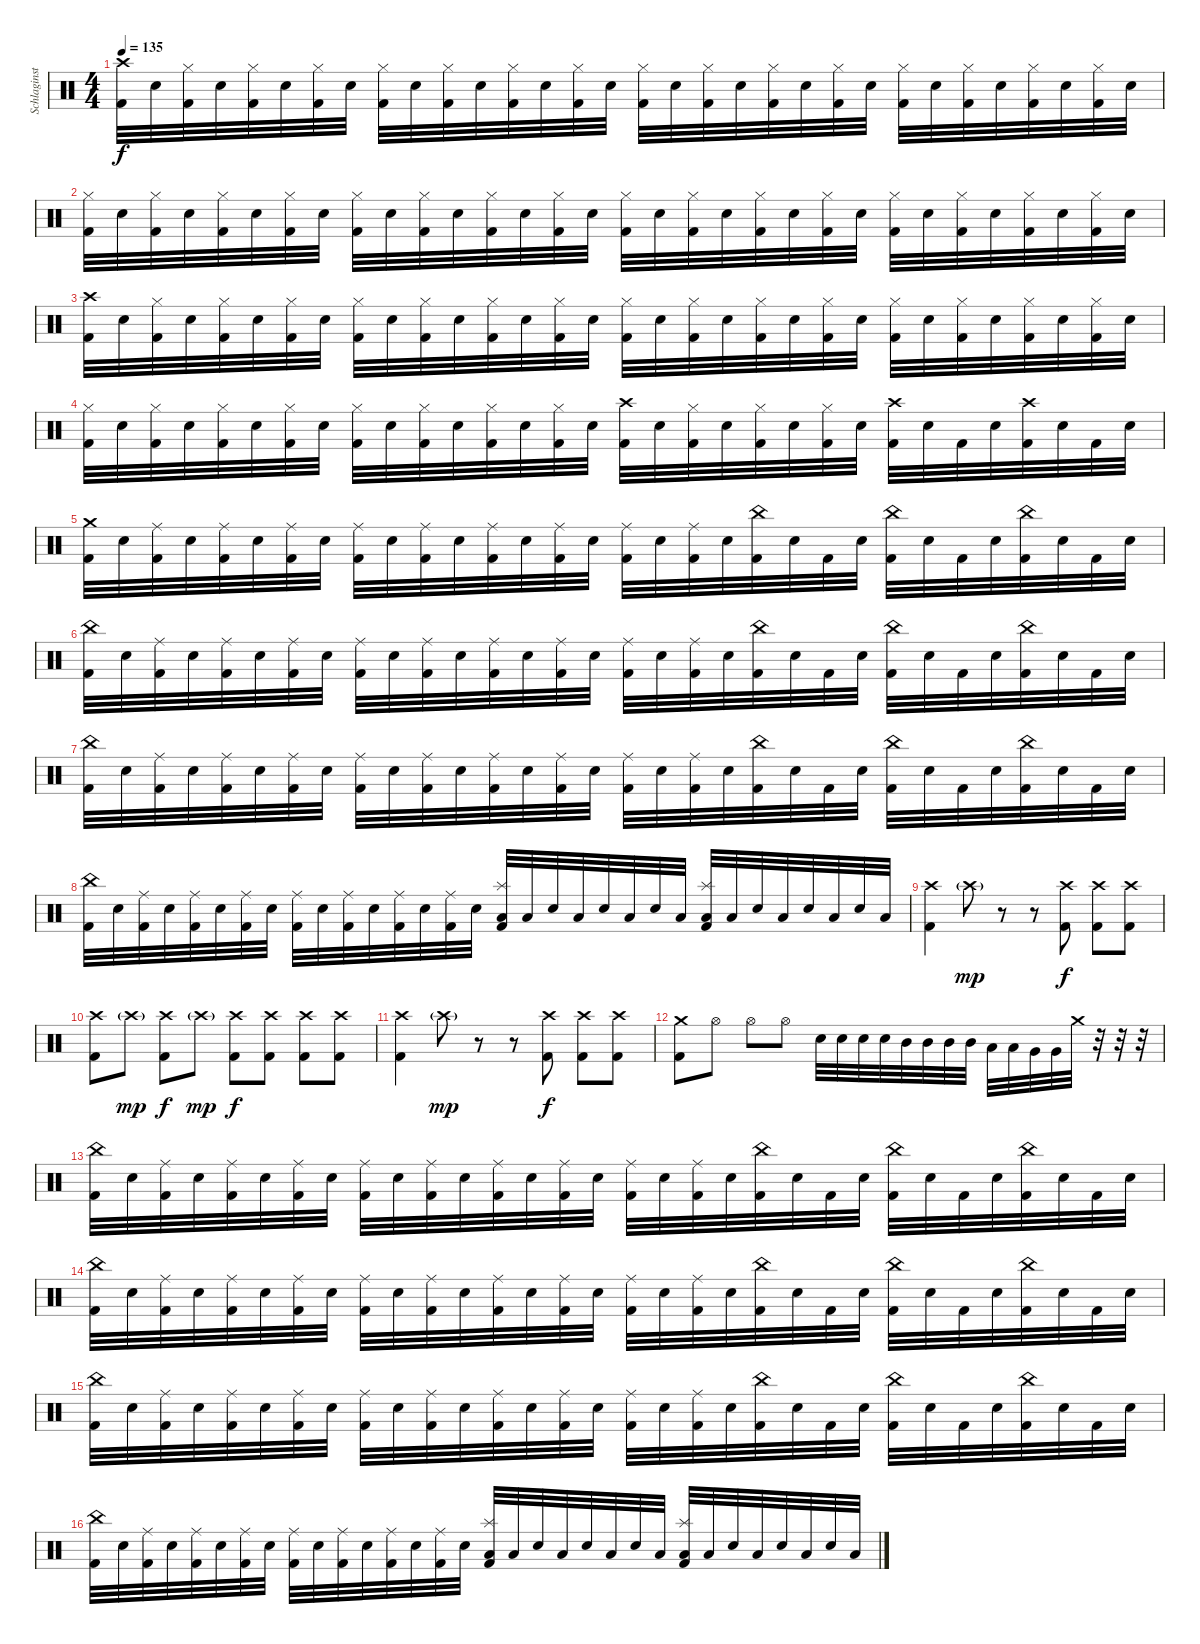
\track ("Schlaginstrumente - Auswahl" "Schlaginst") {instrument percussion}
\staff {score}
\articulation defaults
\ts (4 4)
\tempo 135
\clef neutral
\ks c
("Crash high (hit)" "Kick (hit) 2").32{dy f} "Electric Snare (hit)".32 ("Hi-Hat (closed)" "Kick (hit) 2").32 "Electric Snare (hit)".32 ("Hi-Hat (closed)" "Kick (hit) 2").32 "Electric Snare (hit)".32 ("Hi-Hat (closed)" "Kick (hit) 2").32 "Electric Snare (hit)".32 ("Hi-Hat (closed)" "Kick (hit) 2").32 "Electric Snare (hit)".32 ("Hi-Hat (closed)" "Kick (hit) 2").32 "Electric Snare (hit)".32 ("Hi-Hat (closed)" "Kick (hit) 2").32 "Electric Snare (hit)".32 ("Hi-Hat (closed)" "Kick (hit) 2").32 "Electric Snare (hit)".32 ("Hi-Hat (closed)" "Kick (hit) 2").32 "Electric Snare (hit)".32 ("Hi-Hat (closed)" "Kick (hit) 2").32 "Electric Snare (hit)".32 ("Hi-Hat (closed)" "Kick (hit) 2").32 "Electric Snare (hit)".32 ("Hi-Hat (closed)" "Kick (hit) 2").32 "Electric Snare (hit)".32 ("Hi-Hat (closed)" "Kick (hit) 2").32 "Electric Snare (hit)".32 ("Hi-Hat (closed)" "Kick (hit) 2").32 "Electric Snare (hit)".32 ("Hi-Hat (closed)" "Kick (hit) 2").32 "Electric Snare (hit)".32 ("Hi-Hat (closed)" "Kick (hit) 2").32 "Electric Snare (hit)".32 |
("Hi-Hat (closed)" "Kick (hit) 2").32 "Electric Snare (hit)".32 ("Hi-Hat (closed)" "Kick (hit) 2").32 "Electric Snare (hit)".32 ("Hi-Hat (closed)" "Kick (hit) 2").32 "Electric Snare (hit)".32 ("Hi-Hat (closed)" "Kick (hit) 2").32 "Electric Snare (hit)".32 ("Hi-Hat (closed)" "Kick (hit) 2").32 "Electric Snare (hit)".32 ("Hi-Hat (closed)" "Kick (hit) 2").32 "Electric Snare (hit)".32 ("Hi-Hat (closed)" "Kick (hit) 2").32 "Electric Snare (hit)".32 ("Hi-Hat (closed)" "Kick (hit) 2").32 "Electric Snare (hit)".32 ("Hi-Hat (closed)" "Kick (hit) 2").32 "Electric Snare (hit)".32 ("Hi-Hat (closed)" "Kick (hit) 2").32 "Electric Snare (hit)".32 ("Hi-Hat (closed)" "Kick (hit) 2").32 "Electric Snare (hit)".32 ("Hi-Hat (closed)" "Kick (hit) 2").32 "Electric Snare (hit)".32 ("Hi-Hat (closed)" "Kick (hit) 2").32 "Electric Snare (hit)".32 ("Hi-Hat (closed)" "Kick (hit) 2").32 "Electric Snare (hit)".32 ("Hi-Hat (closed)" "Kick (hit) 2").32 "Electric Snare (hit)".32 ("Hi-Hat (closed)" "Kick (hit) 2").32 "Electric Snare (hit)".32 |
("Crash high (hit)" "Kick (hit) 2").32 "Electric Snare (hit)".32 ("Hi-Hat (closed)" "Kick (hit) 2").32 "Electric Snare (hit)".32 ("Hi-Hat (closed)" "Kick (hit) 2").32 "Electric Snare (hit)".32 ("Hi-Hat (closed)" "Kick (hit) 2").32 "Electric Snare (hit)".32 ("Hi-Hat (closed)" "Kick (hit) 2").32 "Electric Snare (hit)".32 ("Hi-Hat (closed)" "Kick (hit) 2").32 "Electric Snare (hit)".32 ("Hi-Hat (closed)" "Kick (hit) 2").32 "Electric Snare (hit)".32 ("Hi-Hat (closed)" "Kick (hit) 2").32 "Electric Snare (hit)".32 ("Hi-Hat (closed)" "Kick (hit) 2").32 "Electric Snare (hit)".32 ("Hi-Hat (closed)" "Kick (hit) 2").32 "Electric Snare (hit)".32 ("Hi-Hat (closed)" "Kick (hit) 2").32 "Electric Snare (hit)".32 ("Hi-Hat (closed)" "Kick (hit) 2").32 "Electric Snare (hit)".32 ("Hi-Hat (closed)" "Kick (hit) 2").32 "Electric Snare (hit)".32 ("Hi-Hat (closed)" "Kick (hit) 2").32 "Electric Snare (hit)".32 ("Hi-Hat (closed)" "Kick (hit) 2").32 "Electric Snare (hit)".32 ("Hi-Hat (closed)" "Kick (hit) 2").32 "Electric Snare (hit)".32 |
("Hi-Hat (closed)" "Kick (hit) 2").32 "Electric Snare (hit)".32 ("Hi-Hat (closed)" "Kick (hit) 2").32 "Electric Snare (hit)".32 ("Hi-Hat (closed)" "Kick (hit) 2").32 "Electric Snare (hit)".32 ("Hi-Hat (closed)" "Kick (hit) 2").32 "Electric Snare (hit)".32 ("Hi-Hat (closed)" "Kick (hit) 2").32 "Electric Snare (hit)".32 ("Hi-Hat (closed)" "Kick (hit) 2").32 "Electric Snare (hit)".32 ("Hi-Hat (closed)" "Kick (hit) 2").32 "Electric Snare (hit)".32 ("Hi-Hat (closed)" "Kick (hit) 2").32 "Electric Snare (hit)".32 ("Crash high (hit)" "Kick (hit) 2").32 "Electric Snare (hit)".32 ("Hi-Hat (closed)" "Kick (hit) 2").32 "Electric Snare (hit)".32 ("Hi-Hat (closed)" "Kick (hit) 2").32 "Electric Snare (hit)".32 ("Hi-Hat (closed)" "Kick (hit) 2").32 "Electric Snare (hit)".32 ("Crash high (hit)" "Kick (hit) 2").32 "Electric Snare (hit)".32 "Kick (hit) 2".32 "Electric Snare (hit)".32 ("Crash high (hit)" "Kick (hit) 2").32 "Electric Snare (hit)".32 "Kick (hit) 2".32 "Electric Snare (hit)".32 |
("Crash medium (hit)" "Kick (hit) 2").32 "Electric Snare (hit)".32 ("Ride (middle)" "Kick (hit) 2").32 "Electric Snare (hit)".32 ("Ride (middle)" "Kick (hit) 2").32 "Electric Snare (hit)".32 ("Ride (middle)" "Kick (hit) 2").32 "Electric Snare (hit)".32 ("Ride (middle)" "Kick (hit) 2").32 "Electric Snare (hit)".32 ("Ride (middle)" "Kick (hit) 2").32 "Electric Snare (hit)".32 ("Ride (middle)" "Kick (hit) 2").32 "Electric Snare (hit)".32 ("Ride (middle)" "Kick (hit) 2").32 "Electric Snare (hit)".32 ("Ride (middle)" "Kick (hit) 2").32 "Electric Snare (hit)".32 ("Ride (middle)" "Kick (hit) 2").32 "Electric Snare (hit)".32 ("China (hit)" "Kick (hit) 2").32 "Electric Snare (hit)".32 "Kick (hit) 2".32 "Electric Snare (hit)".32 ("China (hit)" "Kick (hit) 2").32 "Electric Snare (hit)".32 "Kick (hit) 2".32 "Electric Snare (hit)".32 ("China (hit)" "Kick (hit) 2").32 "Electric Snare (hit)".32 "Kick (hit) 2".32 "Electric Snare (hit)".32 |
("China (hit)" "Kick (hit) 2").32 "Electric Snare (hit)".32 ("Ride (middle)" "Kick (hit) 2").32 "Electric Snare (hit)".32 ("Ride (middle)" "Kick (hit) 2").32 "Electric Snare (hit)".32 ("Ride (middle)" "Kick (hit) 2").32 "Electric Snare (hit)".32 ("Ride (middle)" "Kick (hit) 2").32 "Electric Snare (hit)".32 ("Ride (middle)" "Kick (hit) 2").32 "Electric Snare (hit)".32 ("Ride (middle)" "Kick (hit) 2").32 "Electric Snare (hit)".32 ("Ride (middle)" "Kick (hit) 2").32 "Electric Snare (hit)".32 ("Ride (middle)" "Kick (hit) 2").32 "Electric Snare (hit)".32 ("Ride (middle)" "Kick (hit) 2").32 "Electric Snare (hit)".32 ("China (hit)" "Kick (hit) 2").32 "Electric Snare (hit)".32 "Kick (hit) 2".32 "Electric Snare (hit)".32 ("China (hit)" "Kick (hit) 2").32 "Electric Snare (hit)".32 "Kick (hit) 2".32 "Electric Snare (hit)".32 ("China (hit)" "Kick (hit) 2").32 "Electric Snare (hit)".32 "Kick (hit) 2".32 "Electric Snare (hit)".32 |
("China (hit)" "Kick (hit) 2").32 "Electric Snare (hit)".32 ("Ride (middle)" "Kick (hit) 2").32 "Electric Snare (hit)".32 ("Ride (middle)" "Kick (hit) 2").32 "Electric Snare (hit)".32 ("Ride (middle)" "Kick (hit) 2").32 "Electric Snare (hit)".32 ("Ride (middle)" "Kick (hit) 2").32 "Electric Snare (hit)".32 ("Ride (middle)" "Kick (hit) 2").32 "Electric Snare (hit)".32 ("Ride (middle)" "Kick (hit) 2").32 "Electric Snare (hit)".32 ("Ride (middle)" "Kick (hit) 2").32 "Electric Snare (hit)".32 ("Ride (middle)" "Kick (hit) 2").32 "Electric Snare (hit)".32 ("Ride (middle)" "Kick (hit) 2").32 "Electric Snare (hit)".32 ("China (hit)" "Kick (hit) 2").32 "Electric Snare (hit)".32 "Kick (hit) 2".32 "Electric Snare (hit)".32 ("China (hit)" "Kick (hit) 2").32 "Electric Snare (hit)".32 "Kick (hit) 2".32 "Electric Snare (hit)".32 ("China (hit)" "Kick (hit) 2").32 "Electric Snare (hit)".32 "Kick (hit) 2".32 "Electric Snare (hit)".32 |
("China (hit)" "Kick (hit) 2").32 "Electric Snare (hit)".32 ("Ride (middle)" "Kick (hit) 2").32 "Electric Snare (hit)".32 ("Ride (middle)" "Kick (hit) 2").32 "Electric Snare (hit)".32 ("Ride (middle)" "Kick (hit) 2").32 "Electric Snare (hit)".32 ("Ride (middle)" "Kick (hit) 2").32 "Electric Snare (hit)".32 ("Ride (middle)" "Kick (hit) 2").32 "Electric Snare (hit)".32 ("Ride (middle)" "Kick (hit) 2").32 "Electric Snare (hit)".32 ("Ride (middle)" "Kick (hit) 2").32 "Electric Snare (hit)".32 ("Splash (hit)" "Low Tom (hit)" "Kick (hit) 2").32 "Low Tom (hit)".32 "Electric Snare (hit)".32 "Low Tom (hit)".32 "Electric Snare (hit)".32 "Low Tom (hit)".32 "Electric Snare (hit)".32 "Low Tom (hit)".32 ("Splash (hit)" "Low Tom (hit)" "Kick (hit) 2").32 "Low Tom (hit)".32 "Electric Snare (hit)".32 "Low Tom (hit)".32 "Electric Snare (hit)".32 "Low Tom (hit)".32 "Electric Snare (hit)".32 "Low Tom (hit)".32 |
("Crash high (hit)" "Kick (hit) 2").4 "Crash high (hit)"{g}.8{dy mp volume 0} r.8 r.8 ("Crash high (hit)" "Kick (hit) 2").8{dy f volume 13} ("Crash high (hit)" "Kick (hit) 2").8 ("Crash high (hit)" "Kick (hit) 2").8 |
("Crash high (hit)" "Kick (hit) 2").8 "Crash high (hit)"{g}.8{dy mp} ("Crash high (hit)" "Kick (hit) 2").8{dy f} "Crash high (hit)"{g}.8{dy mp} ("Crash high (hit)" "Kick (hit) 2").8{dy f} ("Crash high (hit)" "Kick (hit) 2").8 ("Crash high (hit)" "Kick (hit) 2").8 ("Crash high (hit)" "Kick (hit) 2").8 |
("Crash high (hit)" "Kick (hit) 2").4 "Crash high (hit)"{g}.8{dy mp volume 0} r.8 r.8 ("Crash high (hit)" "Kick (hit) 2").8{dy f volume 13} ("Crash high (hit)" "Kick (hit) 2").8 ("Crash high (hit)" "Kick (hit) 2").8 |
("Crash medium (hit)" "Kick (hit) 2").8 "Hi-Hat (open)".8 "Hi-Hat (open)".8 "Hi-Hat (open)".8 "Electric Snare (hit)".32 "Electric Snare (hit)".32 "Electric Snare (hit)".32 "Electric Snare (hit)".32 "Mid Tom (hit)".32 "Mid Tom (hit)".32 "Mid Tom (hit)".32 "Mid Tom (hit)".32 "Low Tom (hit)".32 "Low Tom (hit)".32 "Very Low Tom (hit)".32 "Very Low Tom (hit)".32 "Crash medium (hit)".32 r.32 r.32 r.32 |
("China (hit)" "Kick (hit) 2").32 "Electric Snare (hit)".32 ("Ride (middle)" "Kick (hit) 2").32 "Electric Snare (hit)".32 ("Ride (middle)" "Kick (hit) 2").32 "Electric Snare (hit)".32 ("Ride (middle)" "Kick (hit) 2").32 "Electric Snare (hit)".32 ("Ride (middle)" "Kick (hit) 2").32 "Electric Snare (hit)".32 ("Ride (middle)" "Kick (hit) 2").32 "Electric Snare (hit)".32 ("Ride (middle)" "Kick (hit) 2").32 "Electric Snare (hit)".32 ("Ride (middle)" "Kick (hit) 2").32 "Electric Snare (hit)".32 ("Ride (middle)" "Kick (hit) 2").32 "Electric Snare (hit)".32 ("Ride (middle)" "Kick (hit) 2").32 "Electric Snare (hit)".32 ("China (hit)" "Kick (hit) 2").32 "Electric Snare (hit)".32 "Kick (hit) 2".32 "Electric Snare (hit)".32 ("China (hit)" "Kick (hit) 2").32 "Electric Snare (hit)".32 "Kick (hit) 2".32 "Electric Snare (hit)".32 ("China (hit)" "Kick (hit) 2").32 "Electric Snare (hit)".32 "Kick (hit) 2".32 "Electric Snare (hit)".32 |
("China (hit)" "Kick (hit) 2").32 "Electric Snare (hit)".32 ("Ride (middle)" "Kick (hit) 2").32 "Electric Snare (hit)".32 ("Ride (middle)" "Kick (hit) 2").32 "Electric Snare (hit)".32 ("Ride (middle)" "Kick (hit) 2").32 "Electric Snare (hit)".32 ("Ride (middle)" "Kick (hit) 2").32 "Electric Snare (hit)".32 ("Ride (middle)" "Kick (hit) 2").32 "Electric Snare (hit)".32 ("Ride (middle)" "Kick (hit) 2").32 "Electric Snare (hit)".32 ("Ride (middle)" "Kick (hit) 2").32 "Electric Snare (hit)".32 ("Ride (middle)" "Kick (hit) 2").32 "Electric Snare (hit)".32 ("Ride (middle)" "Kick (hit) 2").32 "Electric Snare (hit)".32 ("China (hit)" "Kick (hit) 2").32 "Electric Snare (hit)".32 "Kick (hit) 2".32 "Electric Snare (hit)".32 ("China (hit)" "Kick (hit) 2").32 "Electric Snare (hit)".32 "Kick (hit) 2".32 "Electric Snare (hit)".32 ("China (hit)" "Kick (hit) 2").32 "Electric Snare (hit)".32 "Kick (hit) 2".32 "Electric Snare (hit)".32 |
("China (hit)" "Kick (hit) 2").32 "Electric Snare (hit)".32 ("Ride (middle)" "Kick (hit) 2").32 "Electric Snare (hit)".32 ("Ride (middle)" "Kick (hit) 2").32 "Electric Snare (hit)".32 ("Ride (middle)" "Kick (hit) 2").32 "Electric Snare (hit)".32 ("Ride (middle)" "Kick (hit) 2").32 "Electric Snare (hit)".32 ("Ride (middle)" "Kick (hit) 2").32 "Electric Snare (hit)".32 ("Ride (middle)" "Kick (hit) 2").32 "Electric Snare (hit)".32 ("Ride (middle)" "Kick (hit) 2").32 "Electric Snare (hit)".32 ("Ride (middle)" "Kick (hit) 2").32 "Electric Snare (hit)".32 ("Ride (middle)" "Kick (hit) 2").32 "Electric Snare (hit)".32 ("China (hit)" "Kick (hit) 2").32 "Electric Snare (hit)".32 "Kick (hit) 2".32 "Electric Snare (hit)".32 ("China (hit)" "Kick (hit) 2").32 "Electric Snare (hit)".32 "Kick (hit) 2".32 "Electric Snare (hit)".32 ("China (hit)" "Kick (hit) 2").32 "Electric Snare (hit)".32 "Kick (hit) 2".32 "Electric Snare (hit)".32 |
("China (hit)" "Kick (hit) 2").32 "Electric Snare (hit)".32 ("Ride (middle)" "Kick (hit) 2").32 "Electric Snare (hit)".32 ("Ride (middle)" "Kick (hit) 2").32 "Electric Snare (hit)".32 ("Ride (middle)" "Kick (hit) 2").32 "Electric Snare (hit)".32 ("Ride (middle)" "Kick (hit) 2").32 "Electric Snare (hit)".32 ("Ride (middle)" "Kick (hit) 2").32 "Electric Snare (hit)".32 ("Ride (middle)" "Kick (hit) 2").32 "Electric Snare (hit)".32 ("Ride (middle)" "Kick (hit) 2").32 "Electric Snare (hit)".32 ("Splash (hit)" "Low Tom (hit)" "Kick (hit) 2").32 "Low Tom (hit)".32 "Electric Snare (hit)".32 "Low Tom (hit)".32 "Electric Snare (hit)".32 "Low Tom (hit)".32 "Electric Snare (hit)".32 "Low Tom (hit)".32 ("Splash (hit)" "Low Tom (hit)" "Kick (hit) 2").32 "Low Tom (hit)".32 "Electric Snare (hit)".32 "Low Tom (hit)".32 "Electric Snare (hit)".32 "Low Tom (hit)".32 "Electric Snare (hit)".32 "Low Tom (hit)".32
